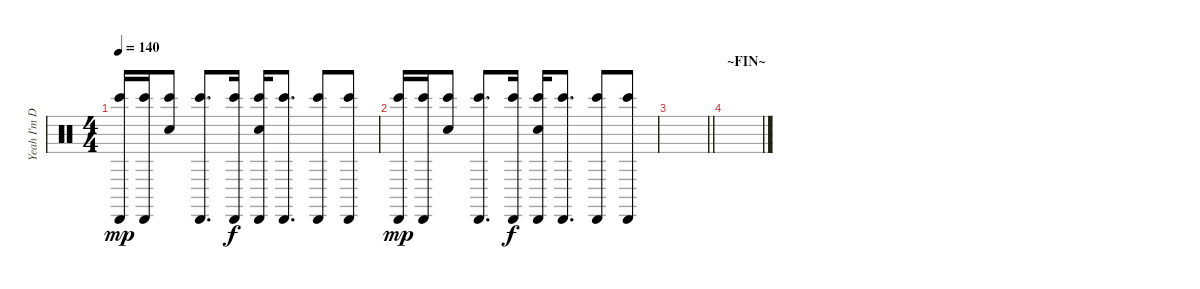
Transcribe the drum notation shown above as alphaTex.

\track ("Yeah I'm Doing Too Much..." "Yeah I'm D") {instrument percussion}
\staff {score}
\articulation defaults
\ts (4 4)
\tempo 140
\clef neutral
\ks c
("Bongo High (hit)" "Cabasa (hit)").16{dy mp balance 0} ("Bongo High (hit)" "Cabasa (hit)").16{balance 16} ("Bongo High (hit)" "Hand Clap (hit)").8{balance 0} ("Bongo High (hit)" "Cabasa (hit)").8{d balance 16} ("Bongo High (hit)" "Cabasa (hit)").16{dy f balance 0} ("Bongo High (hit)" "Cabasa (hit)" "Hand Clap (hit)").16{balance 16} ("Bongo High (hit)" "Cabasa (hit)").8{d balance 0} ("Bongo High (hit)" "Cabasa (hit)").8{balance 16} ("Bongo High (hit)" "Cabasa (hit)").8 |
("Bongo High (hit)" "Cabasa (hit)").16{dy mp balance 0} ("Bongo High (hit)" "Cabasa (hit)").16{balance 16} ("Bongo High (hit)" "Hand Clap (hit)").8{balance 0} ("Bongo High (hit)" "Cabasa (hit)").8{d balance 16} ("Bongo High (hit)" "Cabasa (hit)").16{dy f balance 0} ("Bongo High (hit)" "Cabasa (hit)" "Hand Clap (hit)").16{balance 16} ("Bongo High (hit)" "Cabasa (hit)").8{d balance 0} ("Bongo High (hit)" "Cabasa (hit)").8{balance 16} ("Bongo High (hit)" "Cabasa (hit)").8 |
\barLineRight lightlight
|
\section ("" "~FIN~")
